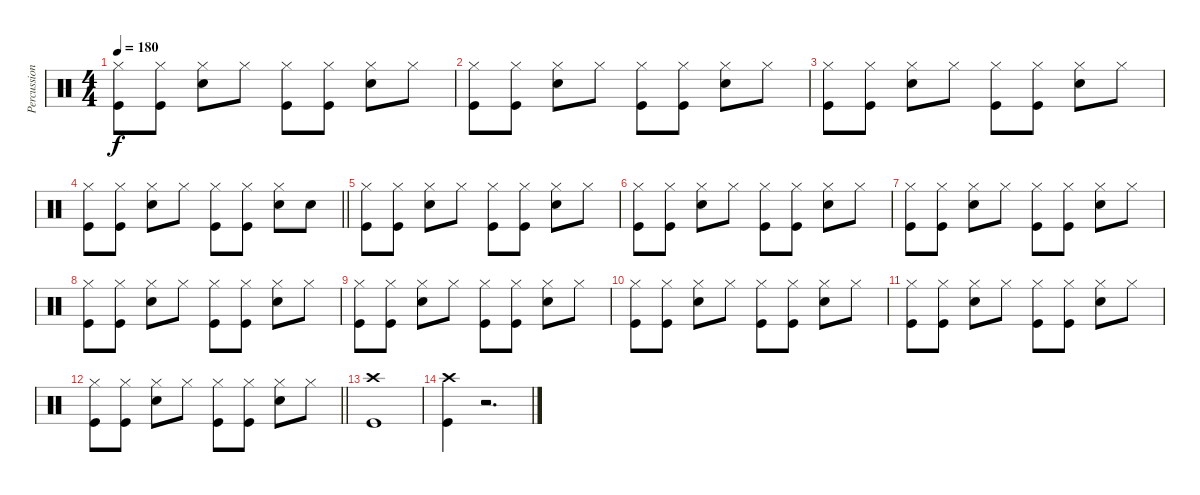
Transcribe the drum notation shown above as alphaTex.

\track ("Percussion" "Percussion") {instrument percussion}
\staff {score}
\articulation defaults
\ts (4 4)
\tempo 180
\clef neutral
\ks c
("Hi-Hat (closed)" "Kick (hit)").8{dy f} ("Hi-Hat (closed)" "Kick (hit)").8 ("Hi-Hat (closed)" "Snare (hit) 2").8 "Hi-Hat (closed)".8 ("Hi-Hat (closed)" "Kick (hit)").8 ("Hi-Hat (closed)" "Kick (hit)").8 ("Hi-Hat (closed)" "Snare (hit) 2").8 "Hi-Hat (closed)".8 |
("Hi-Hat (closed)" "Kick (hit)").8 ("Hi-Hat (closed)" "Kick (hit)").8 ("Hi-Hat (closed)" "Snare (hit) 2").8 "Hi-Hat (closed)".8 ("Hi-Hat (closed)" "Kick (hit)").8 ("Hi-Hat (closed)" "Kick (hit)").8 ("Hi-Hat (closed)" "Snare (hit) 2").8 "Hi-Hat (closed)".8 |
("Hi-Hat (closed)" "Kick (hit)").8 ("Hi-Hat (closed)" "Kick (hit)").8 ("Hi-Hat (closed)" "Snare (hit) 2").8 "Hi-Hat (closed)".8 ("Hi-Hat (closed)" "Kick (hit)").8 ("Hi-Hat (closed)" "Kick (hit)").8 ("Hi-Hat (closed)" "Snare (hit) 2").8 "Hi-Hat (closed)".8 |
\barLineRight lightlight
("Hi-Hat (closed)" "Kick (hit)").8 ("Hi-Hat (closed)" "Kick (hit)").8 ("Hi-Hat (closed)" "Snare (hit) 2").8 "Hi-Hat (closed)".8 ("Hi-Hat (closed)" "Kick (hit)").8 ("Hi-Hat (closed)" "Kick (hit)").8 ("Hi-Hat (closed)" "Snare (hit) 2").8 "Snare (hit)".8 |
("Hi-Hat (closed)" "Kick (hit)").8 ("Hi-Hat (closed)" "Kick (hit)").8 ("Hi-Hat (closed)" "Snare (hit) 2").8 "Hi-Hat (closed)".8 ("Hi-Hat (closed)" "Kick (hit)").8 ("Hi-Hat (closed)" "Kick (hit)").8 ("Hi-Hat (closed)" "Snare (hit) 2").8 "Hi-Hat (closed)".8 |
("Hi-Hat (closed)" "Kick (hit)").8 ("Hi-Hat (closed)" "Kick (hit)").8 ("Hi-Hat (closed)" "Snare (hit) 2").8 "Hi-Hat (closed)".8 ("Hi-Hat (closed)" "Kick (hit)").8 ("Hi-Hat (closed)" "Kick (hit)").8 ("Hi-Hat (closed)" "Snare (hit) 2").8 "Hi-Hat (closed)".8 |
("Hi-Hat (closed)" "Kick (hit)").8 ("Hi-Hat (closed)" "Kick (hit)").8 ("Hi-Hat (closed)" "Snare (hit) 2").8 "Hi-Hat (closed)".8 ("Hi-Hat (closed)" "Kick (hit)").8 ("Hi-Hat (closed)" "Kick (hit)").8 ("Hi-Hat (closed)" "Snare (hit) 2").8 "Hi-Hat (closed)".8 |
("Hi-Hat (closed)" "Kick (hit)").8 ("Hi-Hat (closed)" "Kick (hit)").8 ("Hi-Hat (closed)" "Snare (hit) 2").8 "Hi-Hat (closed)".8 ("Hi-Hat (closed)" "Kick (hit)").8 ("Hi-Hat (closed)" "Kick (hit)").8 ("Hi-Hat (closed)" "Snare (hit) 2").8 "Hi-Hat (closed)".8 |
("Hi-Hat (closed)" "Kick (hit)").8 ("Hi-Hat (closed)" "Kick (hit)").8 ("Hi-Hat (closed)" "Snare (hit) 2").8 "Hi-Hat (closed)".8 ("Hi-Hat (closed)" "Kick (hit)").8 ("Hi-Hat (closed)" "Kick (hit)").8 ("Hi-Hat (closed)" "Snare (hit) 2").8 "Hi-Hat (closed)".8 |
("Hi-Hat (closed)" "Kick (hit)").8 ("Hi-Hat (closed)" "Kick (hit)").8 ("Hi-Hat (closed)" "Snare (hit) 2").8 "Hi-Hat (closed)".8 ("Hi-Hat (closed)" "Kick (hit)").8 ("Hi-Hat (closed)" "Kick (hit)").8 ("Hi-Hat (closed)" "Snare (hit) 2").8 "Hi-Hat (closed)".8 |
("Hi-Hat (closed)" "Kick (hit)").8 ("Hi-Hat (closed)" "Kick (hit)").8 ("Hi-Hat (closed)" "Snare (hit) 2").8 "Hi-Hat (closed)".8 ("Hi-Hat (closed)" "Kick (hit)").8 ("Hi-Hat (closed)" "Kick (hit)").8 ("Hi-Hat (closed)" "Snare (hit) 2").8 "Hi-Hat (closed)".8 |
\barLineRight lightlight
("Hi-Hat (closed)" "Kick (hit)").8 ("Hi-Hat (closed)" "Kick (hit)").8 ("Hi-Hat (closed)" "Snare (hit) 2").8 "Hi-Hat (closed)".8 ("Hi-Hat (closed)" "Kick (hit)").8 ("Hi-Hat (closed)" "Kick (hit)").8 ("Hi-Hat (closed)" "Electric Snare (hit)").8 "Hi-Hat (closed)".8 |
("Crash high (hit)" "Kick (hit)").1 |
("Crash high (hit)" "Kick (hit)").4 r.2{d}
